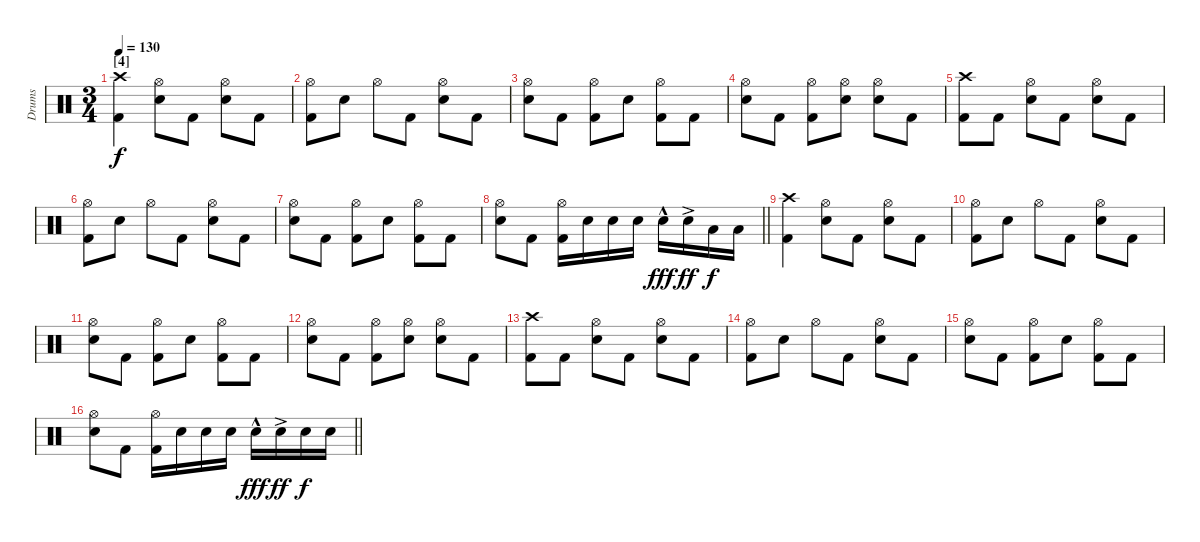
\track ("Drums" "Drums") {instrument percussion}
\staff {score}
\articulation defaults
\ts (3 4)
\section ("" "[4]")
\tempo 130
\clef neutral
\ks c
("Crash high (hit)" "Kick (hit) 2").4{dy f} ("Hi-Hat (open)" "Electric Snare (hit)").8 "Kick (hit) 2".8 ("Hi-Hat (open)" "Electric Snare (hit)").8 "Kick (hit) 2".8 |
("Hi-Hat (open)" "Kick (hit) 2").8 "Electric Snare (hit)".8 "Hi-Hat (open)".8 "Kick (hit) 2".8 ("Hi-Hat (open)" "Electric Snare (hit)").8 "Kick (hit) 2".8 |
("Hi-Hat (open)" "Electric Snare (hit)").8 "Kick (hit) 2".8 ("Hi-Hat (open)" "Kick (hit) 2").8 "Electric Snare (hit)".8 ("Hi-Hat (open)" "Kick (hit) 2").8 "Kick (hit) 2".8 |
("Hi-Hat (open)" "Electric Snare (hit)").8 "Kick (hit) 2".8 ("Hi-Hat (open)" "Kick (hit) 2").8 ("Hi-Hat (open)" "Electric Snare (hit)").8 ("Hi-Hat (open)" "Electric Snare (hit)").8 "Kick (hit) 2".8 |
("Crash high (hit)" "Kick (hit) 2").8 "Kick (hit) 2".8 ("Hi-Hat (open)" "Electric Snare (hit)").8 "Kick (hit) 2".8 ("Hi-Hat (open)" "Electric Snare (hit)").8 "Kick (hit) 2".8 |
("Hi-Hat (open)" "Kick (hit) 2").8 "Electric Snare (hit)".8 "Hi-Hat (open)".8 "Kick (hit) 2".8 ("Hi-Hat (open)" "Electric Snare (hit)").8 "Kick (hit) 2".8 |
("Hi-Hat (open)" "Electric Snare (hit)").8 "Kick (hit) 2".8 ("Hi-Hat (open)" "Kick (hit) 2").8 "Electric Snare (hit)".8 ("Hi-Hat (open)" "Kick (hit) 2").8 "Kick (hit) 2".8 |
\barLineRight lightlight
("Hi-Hat (open)" "Electric Snare (hit)").8 "Kick (hit) 2".8 ("Hi-Hat (open)" "Kick (hit) 2").16 "Electric Snare (hit)".16 "Electric Snare (hit)".16 "Electric Snare (hit)".16 "Electric Snare (hit)"{hac}.16{dy fff} "Electric Snare (hit)"{ac}.16{dy ff} "Low Tom (hit)".16{dy f} "Low Tom (hit)".16 |
\section ("" "")
("Crash high (hit)" "Kick (hit) 2").4 ("Hi-Hat (open)" "Electric Snare (hit)").8 "Kick (hit) 2".8 ("Hi-Hat (open)" "Electric Snare (hit)").8 "Kick (hit) 2".8 |
("Hi-Hat (open)" "Kick (hit) 2").8 "Electric Snare (hit)".8 "Hi-Hat (open)".8 "Kick (hit) 2".8 ("Hi-Hat (open)" "Electric Snare (hit)").8 "Kick (hit) 2".8 |
("Hi-Hat (open)" "Electric Snare (hit)").8 "Kick (hit) 2".8 ("Hi-Hat (open)" "Kick (hit) 2").8 "Electric Snare (hit)".8 ("Hi-Hat (open)" "Kick (hit) 2").8 "Kick (hit) 2".8 |
("Hi-Hat (open)" "Electric Snare (hit)").8 "Kick (hit) 2".8 ("Hi-Hat (open)" "Kick (hit) 2").8 ("Hi-Hat (open)" "Electric Snare (hit)").8 ("Hi-Hat (open)" "Electric Snare (hit)").8 "Kick (hit) 2".8 |
("Crash high (hit)" "Kick (hit) 2").8 "Kick (hit) 2".8 ("Hi-Hat (open)" "Electric Snare (hit)").8 "Kick (hit) 2".8 ("Hi-Hat (open)" "Electric Snare (hit)").8 "Kick (hit) 2".8 |
("Hi-Hat (open)" "Kick (hit) 2").8 "Electric Snare (hit)".8 "Hi-Hat (open)".8 "Kick (hit) 2".8 ("Hi-Hat (open)" "Electric Snare (hit)").8 "Kick (hit) 2".8 |
("Hi-Hat (open)" "Electric Snare (hit)").8 "Kick (hit) 2".8 ("Hi-Hat (open)" "Kick (hit) 2").8 "Electric Snare (hit)".8 ("Hi-Hat (open)" "Kick (hit) 2").8 "Kick (hit) 2".8 |
\barLineRight lightlight
("Hi-Hat (open)" "Electric Snare (hit)").8 "Kick (hit) 2".8 ("Hi-Hat (open)" "Kick (hit) 2").16 "Electric Snare (hit)".16 "Electric Snare (hit)".16 "Electric Snare (hit)".16 "Electric Snare (hit)"{hac}.16{dy fff} "Electric Snare (hit)"{ac}.16{dy ff} "Electric Snare (hit)".16{dy f} "Electric Snare (hit)".16
